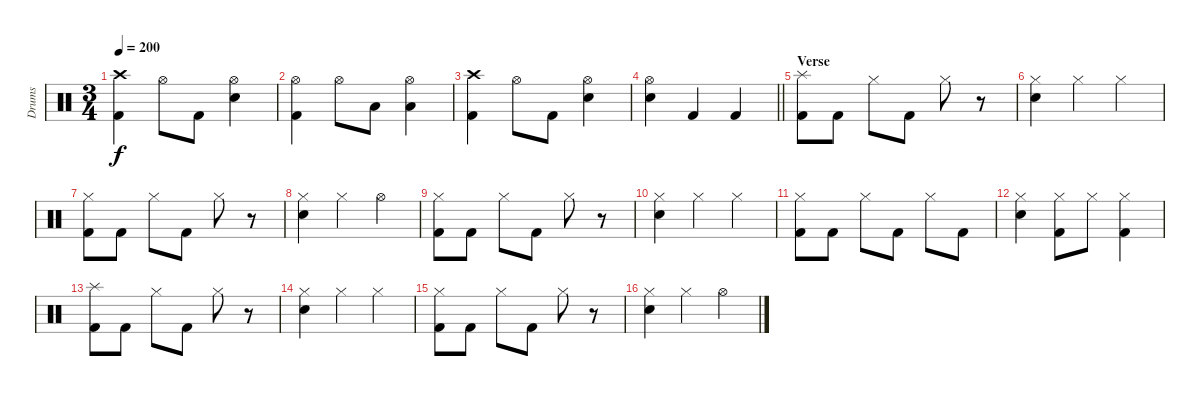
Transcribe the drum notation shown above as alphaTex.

\track ("Drums" "Drums") {instrument percussion}
\staff {score}
\articulation defaults
\ts (3 4)
\tempo 200
\clef neutral
\ks c
("Crash high (hit)" "Kick (hit) 2").4{dy f} "Hi-Hat (open)".8 "Kick (hit) 2".8 ("Hi-Hat (open)" "Electric Snare (hit)").4 |
("Hi-Hat (open)" "Kick (hit) 2").4 "Hi-Hat (open)".8 "Low Floor Tom (hit)".8 ("Hi-Hat (open)" "Low Floor Tom (hit)").4 |
("Crash high (hit)" "Kick (hit) 2").4 "Hi-Hat (open)".8 "Kick (hit) 2".8 ("Hi-Hat (open)" "Electric Snare (hit)").4 |
\barLineRight lightlight
("Hi-Hat (open)" "Electric Snare (hit)").4 "Kick (hit) 2".4 "Kick (hit) 2".4 |
\section ("" "Verse")
("Splash (hit)" "Kick (hit) 2").8 "Kick (hit) 2".8 "Hi-Hat (closed)".8 "Kick (hit) 2".8 "Hi-Hat (closed)".8 r.8 |
("Hi-Hat (closed)" "Electric Snare (hit)").4 "Hi-Hat (closed)".4 "Hi-Hat (closed)".4 |
("Hi-Hat (closed)" "Kick (hit) 2").8 "Kick (hit) 2".8 "Hi-Hat (closed)".8 "Kick (hit) 2".8 "Hi-Hat (closed)".8 r.8 |
("Hi-Hat (closed)" "Electric Snare (hit)").4 "Hi-Hat (closed)".4 "Hi-Hat (open)".4 |
("Hi-Hat (closed)" "Kick (hit) 2").8 "Kick (hit) 2".8 "Hi-Hat (closed)".8 "Kick (hit) 2".8 "Hi-Hat (closed)".8 r.8 |
("Hi-Hat (closed)" "Electric Snare (hit)").4 "Hi-Hat (closed)".4 "Hi-Hat (closed)".4 |
("Hi-Hat (closed)" "Kick (hit) 2").8 "Kick (hit) 2".8 "Hi-Hat (closed)".8 "Kick (hit) 2".8 "Hi-Hat (closed)".8 "Kick (hit) 2".8 |
("Hi-Hat (closed)" "Electric Snare (hit)").4 ("Hi-Hat (closed)" "Kick (hit) 2").8 "Hi-Hat (closed)".8 ("Hi-Hat (closed)" "Kick (hit) 2").4 |
("Splash (hit)" "Kick (hit) 2").8 "Kick (hit) 2".8 "Hi-Hat (closed)".8 "Kick (hit) 2".8 "Hi-Hat (closed)".8 r.8 |
("Hi-Hat (closed)" "Electric Snare (hit)").4 "Hi-Hat (closed)".4 "Hi-Hat (closed)".4 |
("Hi-Hat (closed)" "Kick (hit) 2").8 "Kick (hit) 2".8 "Hi-Hat (closed)".8 "Kick (hit) 2".8 "Hi-Hat (closed)".8 r.8 |
("Hi-Hat (closed)" "Electric Snare (hit)").4 "Hi-Hat (closed)".4 "Hi-Hat (open)".4
